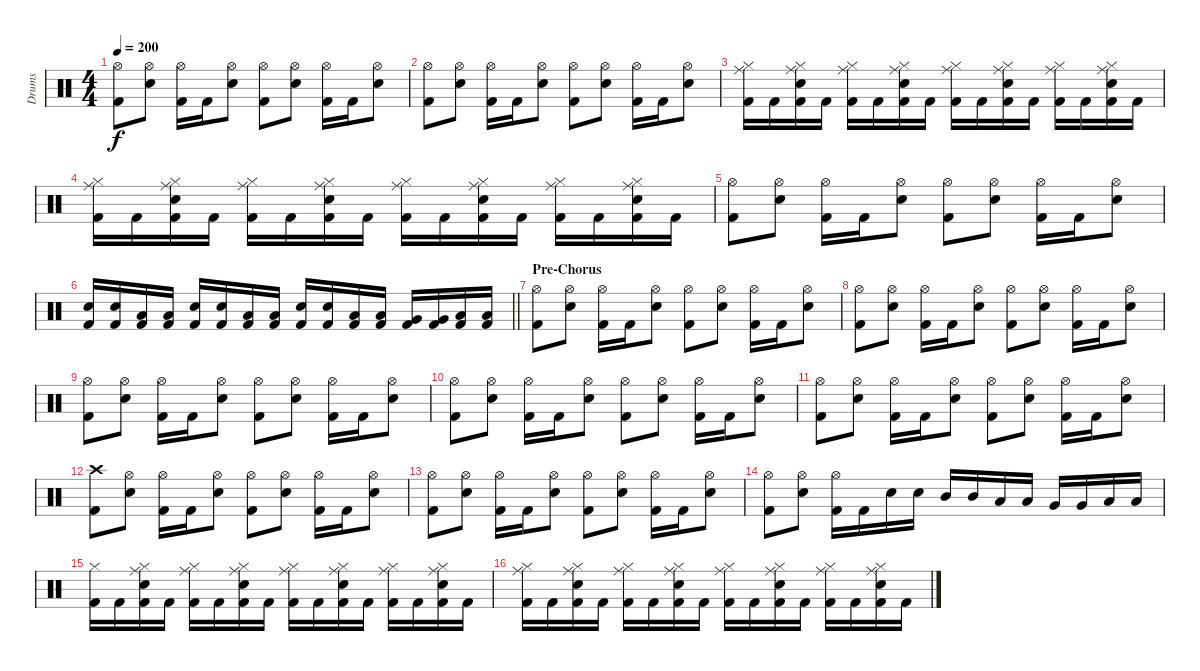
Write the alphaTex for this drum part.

\track ("Drums" "Drums") {instrument percussion}
\staff {score}
\articulation defaults
\ts (4 4)
\tempo 200
\clef neutral
\ks c
("Hi-Hat (open)" "Kick (hit) 2").8{dy f} ("Hi-Hat (open)" "Snare (hit) 2").8 ("Hi-Hat (open)" "Kick (hit) 2").16 "Kick (hit) 2".16 ("Hi-Hat (open)" "Snare (hit) 2").8 ("Hi-Hat (open)" "Kick (hit) 2").8 ("Hi-Hat (open)" "Snare (hit) 2").8 ("Hi-Hat (open)" "Kick (hit) 2").16 "Kick (hit) 2".16 ("Hi-Hat (open)" "Snare (hit) 2").8 |
("Hi-Hat (open)" "Kick (hit) 2").8 ("Hi-Hat (open)" "Snare (hit) 2").8 ("Hi-Hat (open)" "Kick (hit) 2").16 "Kick (hit) 2".16 ("Hi-Hat (open)" "Snare (hit) 2").8 ("Hi-Hat (open)" "Kick (hit) 2").8 ("Hi-Hat (open)" "Snare (hit) 2").8 ("Hi-Hat (open)" "Kick (hit) 2").16 "Kick (hit) 2".16 ("Hi-Hat (open)" "Snare (hit) 2").8 |
("Hi-Hat (closed)" "Ride (middle)" "Kick (hit) 2").16 "Kick (hit) 2".16 ("Hi-Hat (closed)" "Ride (middle)" "Snare (hit) 2" "Kick (hit) 2").16 "Kick (hit) 2".16 ("Hi-Hat (closed)" "Ride (middle)" "Kick (hit) 2").16 "Kick (hit) 2".16 ("Hi-Hat (closed)" "Ride (middle)" "Snare (hit) 2" "Kick (hit) 2").16 "Kick (hit) 2".16 ("Hi-Hat (closed)" "Ride (middle)" "Kick (hit) 2").16 "Kick (hit) 2".16 ("Hi-Hat (closed)" "Ride (middle)" "Snare (hit) 2" "Kick (hit) 2").16 "Kick (hit) 2".16 ("Hi-Hat (closed)" "Ride (middle)" "Kick (hit) 2").16 "Kick (hit) 2".16 ("Hi-Hat (closed)" "Ride (middle)" "Snare (hit) 2" "Kick (hit) 2").16 "Kick (hit) 2".16 |
("Hi-Hat (closed)" "Ride (middle)" "Kick (hit) 2").16 "Kick (hit) 2".16 ("Hi-Hat (closed)" "Ride (middle)" "Snare (hit) 2" "Kick (hit) 2").16 "Kick (hit) 2".16 ("Hi-Hat (closed)" "Ride (middle)" "Kick (hit) 2").16 "Kick (hit) 2".16 ("Hi-Hat (closed)" "Ride (middle)" "Snare (hit) 2" "Kick (hit) 2").16 "Kick (hit) 2".16 ("Hi-Hat (closed)" "Ride (middle)" "Kick (hit) 2").16 "Kick (hit) 2".16 ("Hi-Hat (closed)" "Ride (middle)" "Snare (hit) 2" "Kick (hit) 2").16 "Kick (hit) 2".16 ("Hi-Hat (closed)" "Ride (middle)" "Kick (hit) 2").16 "Kick (hit) 2".16 ("Hi-Hat (closed)" "Ride (middle)" "Snare (hit) 2" "Kick (hit) 2").16 "Kick (hit) 2".16 |
("Hi-Hat (open)" "Kick (hit) 2").8 ("Hi-Hat (open)" "Snare (hit) 2").8 ("Hi-Hat (open)" "Kick (hit) 2").16 "Kick (hit) 2".16 ("Hi-Hat (open)" "Snare (hit) 2").8 ("Hi-Hat (open)" "Kick (hit) 2").8 ("Hi-Hat (open)" "Snare (hit) 2").8 ("Hi-Hat (open)" "Kick (hit) 2").16 "Kick (hit) 2".16 ("Hi-Hat (open)" "Snare (hit) 2").8 |
\barLineRight lightlight
("Snare (hit) 2" "Kick (hit) 2").16 ("Snare (hit) 2" "Kick (hit) 2").16 ("Low Floor Tom (hit)" "Kick (hit) 2").16 ("Low Floor Tom (hit)" "Kick (hit) 2").16 ("Snare (hit) 2" "Kick (hit) 2").16 ("Snare (hit) 2" "Kick (hit) 2").16 ("Low Floor Tom (hit)" "Kick (hit) 2").16 ("Low Floor Tom (hit)" "Kick (hit) 2").16 ("Snare (hit) 2" "Kick (hit) 2").16 ("Snare (hit) 2" "Kick (hit) 2").16 ("Low Tom (hit)" "Kick (hit) 2").16 ("Low Tom (hit)" "Kick (hit) 2").16 ("Very Low Tom (hit)" "Kick (hit) 2").16 ("Very Low Tom (hit)" "Kick (hit) 2").16 ("Low Floor Tom (hit)" "Kick (hit) 2").16 ("Low Floor Tom (hit)" "Kick (hit) 2").16 |
\section ("" "Pre-Chorus")
("Hi-Hat (open)" "Kick (hit) 2").8 ("Hi-Hat (open)" "Snare (hit) 2").8 ("Hi-Hat (open)" "Kick (hit) 2").16 "Kick (hit) 2".16 ("Hi-Hat (open)" "Snare (hit) 2").8 ("Hi-Hat (open)" "Kick (hit) 2").8 ("Hi-Hat (open)" "Snare (hit) 2").8 ("Hi-Hat (open)" "Kick (hit) 2").16 "Kick (hit) 2".16 ("Hi-Hat (open)" "Snare (hit) 2").8 |
("Hi-Hat (open)" "Kick (hit) 2").8 ("Hi-Hat (open)" "Snare (hit) 2").8 ("Hi-Hat (open)" "Kick (hit) 2").16 "Kick (hit) 2".16 ("Hi-Hat (open)" "Snare (hit) 2").8 ("Hi-Hat (open)" "Kick (hit) 2").8 ("Hi-Hat (open)" "Snare (hit) 2").8 ("Hi-Hat (open)" "Kick (hit) 2").16 "Kick (hit) 2".16 ("Hi-Hat (open)" "Snare (hit) 2").8 |
("Hi-Hat (open)" "Kick (hit) 2").8 ("Hi-Hat (open)" "Snare (hit) 2").8 ("Hi-Hat (open)" "Kick (hit) 2").16 "Kick (hit) 2".16 ("Hi-Hat (open)" "Snare (hit) 2").8 ("Hi-Hat (open)" "Kick (hit) 2").8 ("Hi-Hat (open)" "Snare (hit) 2").8 ("Hi-Hat (open)" "Kick (hit) 2").16 "Kick (hit) 2".16 ("Hi-Hat (open)" "Snare (hit) 2").8 |
("Hi-Hat (open)" "Kick (hit) 2").8 ("Hi-Hat (open)" "Snare (hit) 2").8 ("Hi-Hat (open)" "Kick (hit) 2").16 "Kick (hit) 2".16 ("Hi-Hat (open)" "Snare (hit) 2").8 ("Hi-Hat (open)" "Kick (hit) 2").8 ("Hi-Hat (open)" "Snare (hit) 2").8 ("Hi-Hat (open)" "Kick (hit) 2").16 "Kick (hit) 2".16 ("Hi-Hat (open)" "Snare (hit) 2").8 |
("Hi-Hat (open)" "Kick (hit) 2").8 ("Hi-Hat (open)" "Snare (hit) 2").8 ("Hi-Hat (open)" "Kick (hit) 2").16 "Kick (hit) 2".16 ("Hi-Hat (open)" "Snare (hit) 2").8 ("Hi-Hat (open)" "Kick (hit) 2").8 ("Hi-Hat (open)" "Snare (hit) 2").8 ("Hi-Hat (open)" "Kick (hit) 2").16 "Kick (hit) 2".16 ("Hi-Hat (open)" "Snare (hit) 2").8 |
("Crash high (hit)" "Kick (hit) 2").8 ("Hi-Hat (open)" "Snare (hit) 2").8 ("Hi-Hat (open)" "Kick (hit) 2").16 "Kick (hit) 2".16 ("Hi-Hat (open)" "Snare (hit) 2").8 ("Hi-Hat (open)" "Kick (hit) 2").8 ("Hi-Hat (open)" "Snare (hit) 2").8 ("Hi-Hat (open)" "Kick (hit) 2").16 "Kick (hit) 2".16 ("Hi-Hat (open)" "Snare (hit) 2").8 |
("Hi-Hat (open)" "Kick (hit) 2").8 ("Hi-Hat (open)" "Snare (hit) 2").8 ("Hi-Hat (open)" "Kick (hit) 2").16 "Kick (hit) 2".16 ("Hi-Hat (open)" "Snare (hit) 2").8 ("Hi-Hat (open)" "Kick (hit) 2").8 ("Hi-Hat (open)" "Snare (hit) 2").8 ("Hi-Hat (open)" "Kick (hit) 2").16 "Kick (hit) 2".16 ("Hi-Hat (open)" "Snare (hit) 2").8 |
("Hi-Hat (open)" "Kick (hit) 2").8 ("Hi-Hat (open)" "Snare (hit) 2").8 ("Hi-Hat (open)" "Kick (hit) 2").16 "Kick (hit) 2".16 "Snare (hit) 2".16 "Snare (hit) 2".16 "Mid Tom (hit)".16 "Mid Tom (hit)".16 "Low Tom (hit)".16 "Low Tom (hit)".16 "Very Low Tom (hit)".16 "Very Low Tom (hit)".16 "Low Floor Tom (hit)".16 "Low Floor Tom (hit)".16 |
("Hi-Hat (closed)" "Kick (hit) 2").16 "Kick (hit) 2".16 ("Hi-Hat (closed)" "Ride (middle)" "Snare (hit) 2" "Kick (hit) 2").16 "Kick (hit) 2".16 ("Hi-Hat (closed)" "Ride (middle)" "Kick (hit) 2").16 "Kick (hit) 2".16 ("Hi-Hat (closed)" "Ride (middle)" "Snare (hit) 2" "Kick (hit) 2").16 "Kick (hit) 2".16 ("Hi-Hat (closed)" "Ride (middle)" "Kick (hit) 2").16 "Kick (hit) 2".16 ("Hi-Hat (closed)" "Ride (middle)" "Snare (hit) 2" "Kick (hit) 2").16 "Kick (hit) 2".16 ("Hi-Hat (closed)" "Ride (middle)" "Kick (hit) 2").16 "Kick (hit) 2".16 ("Hi-Hat (closed)" "Ride (middle)" "Snare (hit) 2" "Kick (hit) 2").16 "Kick (hit) 2".16 |
("Hi-Hat (closed)" "Ride (middle)" "Kick (hit) 2").16 "Kick (hit) 2".16 ("Hi-Hat (closed)" "Ride (middle)" "Snare (hit) 2" "Kick (hit) 2").16 "Kick (hit) 2".16 ("Hi-Hat (closed)" "Ride (middle)" "Kick (hit) 2").16 "Kick (hit) 2".16 ("Hi-Hat (closed)" "Ride (middle)" "Snare (hit) 2" "Kick (hit) 2").16 "Kick (hit) 2".16 ("Hi-Hat (closed)" "Ride (middle)" "Kick (hit) 2").16 "Kick (hit) 2".16 ("Hi-Hat (closed)" "Ride (middle)" "Snare (hit) 2" "Kick (hit) 2").16 "Kick (hit) 2".16 ("Hi-Hat (closed)" "Ride (middle)" "Kick (hit) 2").16 "Kick (hit) 2".16 ("Hi-Hat (closed)" "Ride (middle)" "Snare (hit) 2" "Kick (hit) 2").16 "Kick (hit) 2".16
